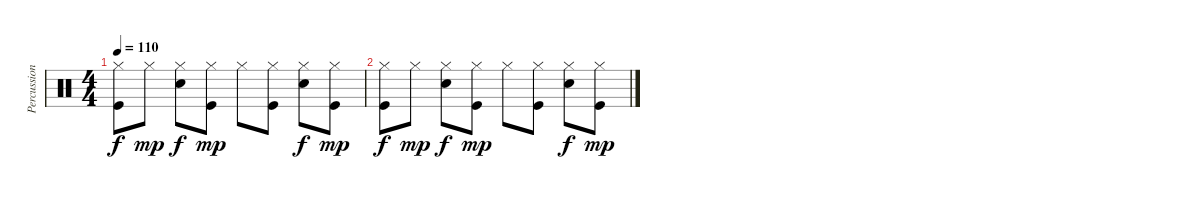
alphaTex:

\track ("Percussion" "Percussion") {instrument percussion}
\staff {score}
\articulation defaults
\ts (4 4)
\tempo 110
\clef neutral
\ks c
("Hi-Hat (closed)" "Kick (hit)").8{dy f} "Hi-Hat (closed)".8{dy mp} ("Hi-Hat (closed)" "Snare (hit) 2").8{dy f} ("Hi-Hat (closed)" "Kick (hit)").8{dy mp} "Hi-Hat (closed)".8 ("Hi-Hat (closed)" "Kick (hit)").8 ("Hi-Hat (closed)" "Snare (hit) 2").8{dy f} ("Hi-Hat (closed)" "Kick (hit)").8{dy mp} |
("Hi-Hat (closed)" "Kick (hit)").8{dy f} "Hi-Hat (closed)".8{dy mp} ("Hi-Hat (closed)" "Snare (hit) 2").8{dy f} ("Hi-Hat (closed)" "Kick (hit)").8{dy mp} "Hi-Hat (closed)".8 ("Hi-Hat (closed)" "Kick (hit)").8 ("Hi-Hat (closed)" "Snare (hit) 2").8{dy f} ("Hi-Hat (closed)" "Kick (hit)").8{dy mp}
